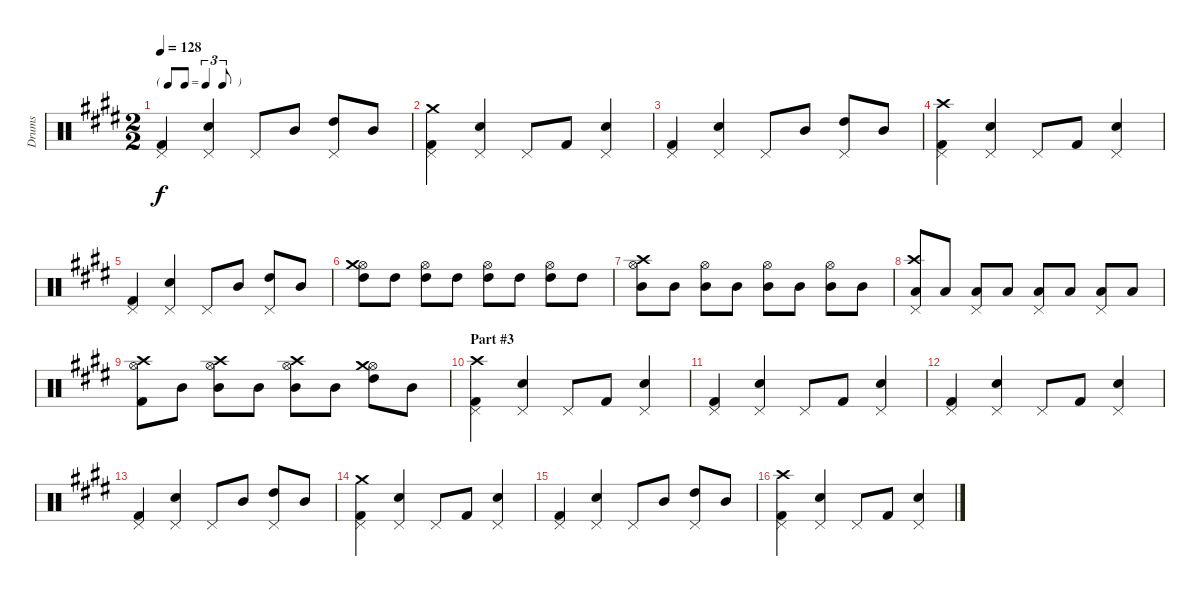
\track ("Drums" "Drums") {instrument percussion}
\staff {score}
\articulation defaults
\ts (2 2)
\tf triplet8th
\tempo 128
\clef neutral
\ks e
("Pedal Hi-Hat (hit)" "Kick (hit) 2").4{dy f} ("Pedal Hi-Hat (hit)" "Snare (hit) 2").4 "Pedal Hi-Hat (hit)".8 "Mid Tom (hit)".8 ("Pedal Hi-Hat (hit)" "High Tom (hit)").8 "Mid Tom (hit)".8 |
("Pedal Hi-Hat (hit)" "Crash medium (hit)" "Kick (hit) 2").4 ("Pedal Hi-Hat (hit)" "Snare (hit) 2").4 "Pedal Hi-Hat (hit)".8 "Kick (hit) 2".8 ("Pedal Hi-Hat (hit)" "Snare (hit) 2").4 |
("Pedal Hi-Hat (hit)" "Kick (hit) 2").4 ("Pedal Hi-Hat (hit)" "Snare (hit) 2").4 "Pedal Hi-Hat (hit)".8 "Mid Tom (hit)".8 ("Pedal Hi-Hat (hit)" "High Tom (hit)").8 "Mid Tom (hit)".8 |
("Pedal Hi-Hat (hit)" "Crash high (hit)" "Kick (hit) 2").4 ("Pedal Hi-Hat (hit)" "Snare (hit) 2").4 "Pedal Hi-Hat (hit)".8 "Kick (hit) 2".8 ("Pedal Hi-Hat (hit)" "Snare (hit) 2").4 |
("Pedal Hi-Hat (hit)" "Kick (hit) 2").4 ("Pedal Hi-Hat (hit)" "Snare (hit) 2").4 "Pedal Hi-Hat (hit)".8 "Mid Tom (hit)".8 ("Pedal Hi-Hat (hit)" "High Tom (hit)").8 "Mid Tom (hit)".8 |
("Hi-Hat (open)" "Crash medium (hit)" "High Tom (hit)").8 "High Tom (hit)".8 ("Hi-Hat (open)" "High Tom (hit)").8 "High Tom (hit)".8 ("Hi-Hat (open)" "High Tom (hit)").8 "High Tom (hit)".8 ("Hi-Hat (open)" "High Tom (hit)").8 "High Tom (hit)".8 |
("Hi-Hat (open)" "Crash high (hit)" "Mid Tom (hit)").8 "Mid Tom (hit)".8 ("Hi-Hat (open)" "Mid Tom (hit)").8 "Mid Tom (hit)".8 ("Hi-Hat (open)" "Mid Tom (hit)").8 "Mid Tom (hit)".8 ("Hi-Hat (open)" "Mid Tom (hit)").8 "Mid Tom (hit)".8 |
("Pedal Hi-Hat (hit)" "Crash high (hit)" "Low Tom (hit)").8 "Low Tom (hit)".8 ("Pedal Hi-Hat (hit)" "Low Tom (hit)").8 "Low Tom (hit)".8 ("Pedal Hi-Hat (hit)" "Low Tom (hit)").8 "Low Tom (hit)".8 ("Pedal Hi-Hat (hit)" "Low Tom (hit)").8 "Low Tom (hit)".8 |
("Hi-Hat (open)" "Crash high (hit)" "Kick (hit) 2").8 "Mid Tom (hit)".8 ("Hi-Hat (open)" "Crash high (hit)" "Mid Tom (hit)").8 "Mid Tom (hit)".8 ("Hi-Hat (open)" "Crash high (hit)" "Mid Tom (hit)").8 "Mid Tom (hit)".8 ("Hi-Hat (open)" "Crash medium (hit)" "High Tom (hit)").8 "Mid Tom (hit)".8 |
\section ("" "Part #3")
("Pedal Hi-Hat (hit)" "Crash high (hit)" "Kick (hit) 2").4 ("Pedal Hi-Hat (hit)" "Snare (hit) 2").4 "Pedal Hi-Hat (hit)".8 "Kick (hit) 2".8 ("Pedal Hi-Hat (hit)" "Snare (hit) 2").4 |
("Pedal Hi-Hat (hit)" "Kick (hit) 2").4 ("Pedal Hi-Hat (hit)" "Snare (hit) 2").4 "Pedal Hi-Hat (hit)".8 "Kick (hit) 2".8 ("Pedal Hi-Hat (hit)" "Snare (hit) 2").4 |
("Pedal Hi-Hat (hit)" "Kick (hit) 2").4 ("Pedal Hi-Hat (hit)" "Snare (hit) 2").4 "Pedal Hi-Hat (hit)".8 "Kick (hit) 2".8 ("Pedal Hi-Hat (hit)" "Snare (hit) 2").4 |
("Pedal Hi-Hat (hit)" "Kick (hit) 2").4 ("Pedal Hi-Hat (hit)" "Snare (hit) 2").4 "Pedal Hi-Hat (hit)".8 "Mid Tom (hit)".8 ("Pedal Hi-Hat (hit)" "High Tom (hit)").8 "Mid Tom (hit)".8 |
("Pedal Hi-Hat (hit)" "Crash medium (hit)" "Kick (hit) 2").4 ("Pedal Hi-Hat (hit)" "Snare (hit) 2").4 "Pedal Hi-Hat (hit)".8 "Kick (hit) 2".8 ("Pedal Hi-Hat (hit)" "Snare (hit) 2").4 |
("Pedal Hi-Hat (hit)" "Kick (hit) 2").4 ("Pedal Hi-Hat (hit)" "Snare (hit) 2").4 "Pedal Hi-Hat (hit)".8 "Mid Tom (hit)".8 ("Pedal Hi-Hat (hit)" "High Tom (hit)").8 "Mid Tom (hit)".8 |
("Pedal Hi-Hat (hit)" "Crash high (hit)" "Kick (hit) 2").4 ("Pedal Hi-Hat (hit)" "Snare (hit) 2").4 "Pedal Hi-Hat (hit)".8 "Kick (hit) 2".8 ("Pedal Hi-Hat (hit)" "Snare (hit) 2").4
